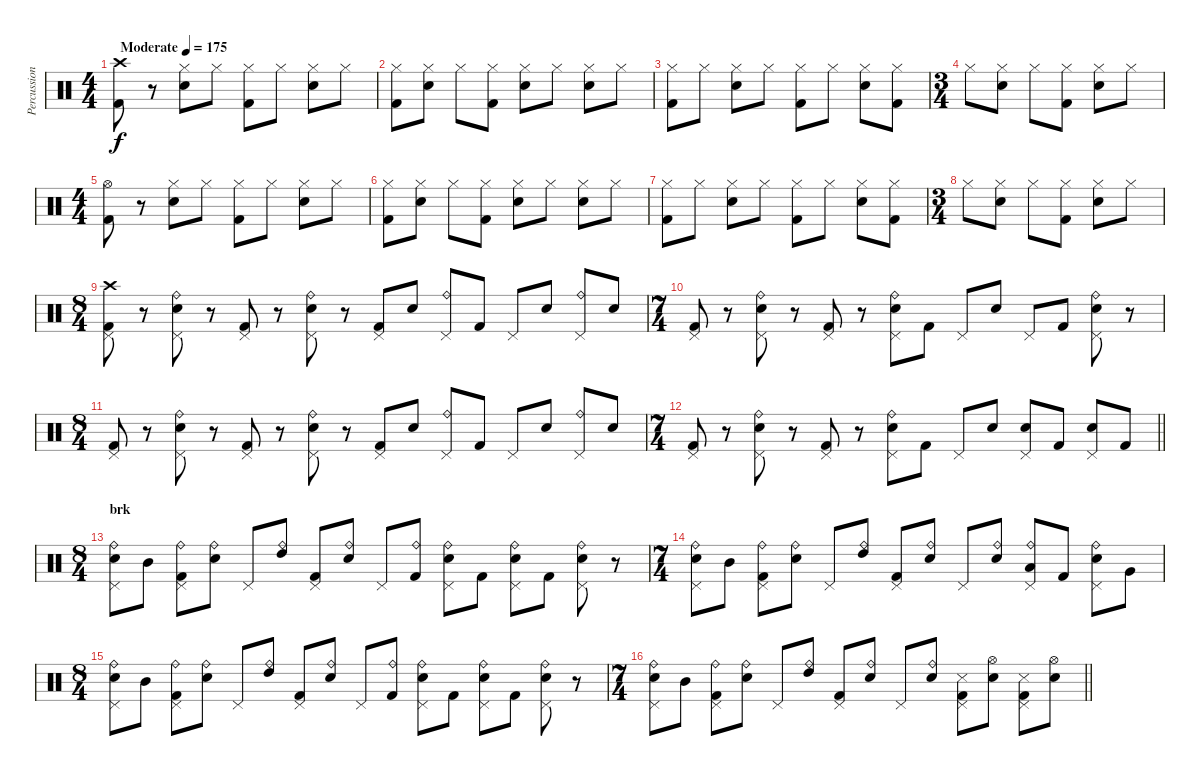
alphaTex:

\track ("Percussion" "Percussion") {instrument percussion}
\staff {score}
\articulation defaults
\ts (4 4)
\tempo (175 "Moderate")
\clef neutral
\ks c
("Crash high (hit)" "Kick (hit) 2").8{dy f} r.8 ("Hi-Hat (closed)" "Electric Snare (hit)").8 "Hi-Hat (closed)".8 ("Hi-Hat (closed)" "Kick (hit) 2").8 "Hi-Hat (closed)".8 ("Hi-Hat (closed)" "Electric Snare (hit)").8 "Hi-Hat (closed)".8 |
("Hi-Hat (closed)" "Kick (hit) 2").8 ("Hi-Hat (closed)" "Electric Snare (hit)").8 "Hi-Hat (closed)".8 ("Hi-Hat (closed)" "Kick (hit) 2").8 ("Hi-Hat (closed)" "Electric Snare (hit)").8 "Hi-Hat (closed)".8 ("Hi-Hat (closed)" "Electric Snare (hit)").8 "Hi-Hat (closed)".8 |
("Hi-Hat (closed)" "Kick (hit) 2").8 "Hi-Hat (closed)".8 ("Hi-Hat (closed)" "Electric Snare (hit)").8 "Hi-Hat (closed)".8 ("Hi-Hat (closed)" "Kick (hit) 2").8 "Hi-Hat (closed)".8 ("Hi-Hat (closed)" "Electric Snare (hit)").8 ("Hi-Hat (closed)" "Kick (hit) 2").8 |
\ts (3 4)
"Hi-Hat (closed)".8 ("Hi-Hat (closed)" "Electric Snare (hit)").8 "Hi-Hat (closed)".8 ("Hi-Hat (closed)" "Kick (hit) 2").8 ("Hi-Hat (closed)" "Electric Snare (hit)").8 "Hi-Hat (closed)".8 |
\ts (4 4)
("Hi-Hat (open)" "Kick (hit) 2").8 r.8 ("Hi-Hat (closed)" "Electric Snare (hit)").8 "Hi-Hat (closed)".8 ("Hi-Hat (closed)" "Kick (hit) 2").8 "Hi-Hat (closed)".8 ("Hi-Hat (closed)" "Electric Snare (hit)").8 "Hi-Hat (closed)".8 |
("Hi-Hat (closed)" "Kick (hit) 2").8 ("Hi-Hat (closed)" "Electric Snare (hit)").8 "Hi-Hat (closed)".8 ("Hi-Hat (closed)" "Kick (hit) 2").8 ("Hi-Hat (closed)" "Electric Snare (hit)").8 "Hi-Hat (closed)".8 ("Hi-Hat (closed)" "Electric Snare (hit)").8 "Hi-Hat (closed)".8 |
("Hi-Hat (closed)" "Kick (hit) 2").8 "Hi-Hat (closed)".8 ("Hi-Hat (closed)" "Electric Snare (hit)").8 "Hi-Hat (closed)".8 ("Hi-Hat (closed)" "Kick (hit) 2").8 "Hi-Hat (closed)".8 ("Hi-Hat (closed)" "Electric Snare (hit)").8 ("Hi-Hat (closed)" "Kick (hit) 2").8 |
\ts (3 4)
"Hi-Hat (closed)".8 ("Hi-Hat (closed)" "Electric Snare (hit)").8 "Hi-Hat (closed)".8 ("Hi-Hat (closed)" "Kick (hit) 2").8 ("Hi-Hat (closed)" "Electric Snare (hit)").8 "Hi-Hat (closed)".8 |
\ts (8 4)
("Crash high (hit)" "Pedal Hi-Hat (hit)" "Kick (hit) 2").8 r.8 ("Ride (bell)" "Electric Snare (hit)" "Pedal Hi-Hat (hit)").8 r.8 ("Pedal Hi-Hat (hit)" "Kick (hit) 2").8 r.8 ("Ride (bell)" "Electric Snare (hit)" "Pedal Hi-Hat (hit)").8 r.8 ("Pedal Hi-Hat (hit)" "Kick (hit) 2").8 "Electric Snare (hit)".8 ("Ride (bell)" "Pedal Hi-Hat (hit)").8 "Kick (hit) 2".8 "Pedal Hi-Hat (hit)".8 "Electric Snare (hit)".8 ("Ride (bell)" "Pedal Hi-Hat (hit)").8 "Electric Snare (hit)".8 |
\ts (7 4)
("Pedal Hi-Hat (hit)" "Kick (hit) 2").8 r.8 ("Ride (bell)" "Electric Snare (hit)" "Pedal Hi-Hat (hit)").8 r.8 ("Pedal Hi-Hat (hit)" "Kick (hit) 2").8 r.8 ("Ride (bell)" "Electric Snare (hit)" "Pedal Hi-Hat (hit)").8 "Kick (hit) 2".8 "Pedal Hi-Hat (hit)".8 "Electric Snare (hit)".8 "Pedal Hi-Hat (hit)".8 "Kick (hit) 2".8 ("Ride (bell)" "Electric Snare (hit)" "Pedal Hi-Hat (hit)").8 r.8 |
\ts (8 4)
("Pedal Hi-Hat (hit)" "Kick (hit) 2").8 r.8 ("Ride (bell)" "Electric Snare (hit)" "Pedal Hi-Hat (hit)").8 r.8 ("Pedal Hi-Hat (hit)" "Kick (hit) 2").8 r.8 ("Ride (bell)" "Electric Snare (hit)" "Pedal Hi-Hat (hit)").8 r.8 ("Pedal Hi-Hat (hit)" "Kick (hit) 2").8 "Electric Snare (hit)".8 ("Ride (bell)" "Pedal Hi-Hat (hit)").8 "Kick (hit) 2".8 "Pedal Hi-Hat (hit)".8 "Electric Snare (hit)".8 ("Ride (bell)" "Pedal Hi-Hat (hit)").8 "Electric Snare (hit)".8 |
\ts (7 4)
\barLineRight lightlight
("Pedal Hi-Hat (hit)" "Kick (hit) 2").8 r.8 ("Ride (bell)" "Electric Snare (hit)" "Pedal Hi-Hat (hit)").8 r.8 ("Pedal Hi-Hat (hit)" "Kick (hit) 2").8 r.8 ("Ride (bell)" "Electric Snare (hit)" "Pedal Hi-Hat (hit)").8 "Kick (hit) 2".8 "Pedal Hi-Hat (hit)".8 "Electric Snare (hit)".8 ("Electric Snare (hit)" "Pedal Hi-Hat (hit)").8 "Kick (hit) 2".8 ("Electric Snare (hit)" "Pedal Hi-Hat (hit)").8 "Kick (hit) 2".8 |
\ts (8 4)
\section ("" "brk")
("Ride (bell)" "Electric Snare (hit)" "Pedal Hi-Hat (hit)").8 "Mid Tom (hit)".8 ("Ride (bell)" "Pedal Hi-Hat (hit)" "Kick (hit) 2").8 ("Ride (bell)" "Electric Snare (hit)").8 "Pedal Hi-Hat (hit)".8 ("Ride (bell)" "High Tom (hit)").8 ("Pedal Hi-Hat (hit)" "Kick (hit) 2").8 ("Ride (bell)" "Electric Snare (hit)").8 "Pedal Hi-Hat (hit)".8 ("Ride (bell)" "Kick (hit) 2").8 ("Ride (bell)" "Electric Snare (hit)" "Pedal Hi-Hat (hit)").8 "Kick (hit) 2".8 ("Ride (bell)" "Electric Snare (hit)" "Pedal Hi-Hat (hit)").8 "Kick (hit) 2".8 ("Ride (bell)" "Electric Snare (hit)" "Pedal Hi-Hat (hit)").8 r.8 |
\ts (7 4)
("Ride (bell)" "Electric Snare (hit)" "Pedal Hi-Hat (hit)").8 "Mid Tom (hit)".8 ("Ride (bell)" "Pedal Hi-Hat (hit)" "Kick (hit) 2").8 ("Ride (bell)" "Electric Snare (hit)").8 "Pedal Hi-Hat (hit)".8 ("Ride (bell)" "High Tom (hit)").8 ("Pedal Hi-Hat (hit)" "Kick (hit) 2").8 ("Ride (bell)" "Electric Snare (hit)").8 "Pedal Hi-Hat (hit)".8 ("Ride (bell)" "Electric Snare (hit)").8 ("Ride (bell)" "Low Tom (hit)" "Pedal Hi-Hat (hit)").8 "Kick (hit) 2".8 ("Ride (bell)" "Electric Snare (hit)" "Pedal Hi-Hat (hit)").8 "Very Low Tom (hit)".8 |
\ts (8 4)
("Ride (bell)" "Electric Snare (hit)" "Pedal Hi-Hat (hit)").8 "Mid Tom (hit)".8 ("Ride (bell)" "Pedal Hi-Hat (hit)" "Kick (hit) 2").8 ("Ride (bell)" "Electric Snare (hit)").8 "Pedal Hi-Hat (hit)".8 ("Ride (bell)" "High Tom (hit)").8 ("Pedal Hi-Hat (hit)" "Kick (hit) 2").8 ("Ride (bell)" "Electric Snare (hit)").8 "Pedal Hi-Hat (hit)".8 ("Ride (bell)" "Kick (hit) 2").8 ("Ride (bell)" "Electric Snare (hit)" "Pedal Hi-Hat (hit)").8 "Kick (hit) 2".8 ("Ride (bell)" "Electric Snare (hit)" "Pedal Hi-Hat (hit)").8 "Kick (hit) 2".8 ("Ride (bell)" "Electric Snare (hit)" "Pedal Hi-Hat (hit)").8 r.8 |
\ts (7 4)
\barLineRight lightlight
("Ride (bell)" "Electric Snare (hit)" "Pedal Hi-Hat (hit)").8 "Mid Tom (hit)".8 ("Ride (bell)" "Pedal Hi-Hat (hit)" "Kick (hit) 2").8 ("Ride (bell)" "Electric Snare (hit)").8 "Pedal Hi-Hat (hit)".8 ("Ride (bell)" "High Tom (hit)").8 ("Pedal Hi-Hat (hit)" "Kick (hit) 2").8 ("Ride (bell)" "Electric Snare (hit)").8 "Pedal Hi-Hat (hit)".8 ("Ride (bell)" "Electric Snare (hit)").8 ("Snare (side stick) 3" "Pedal Hi-Hat (hit)" "Kick (hit) 2").8 ("Hi-Hat (open)" "Electric Snare (hit)").8 ("Snare (side stick) 3" "Pedal Hi-Hat (hit)" "Kick (hit) 2").8 ("Hi-Hat (open)" "Electric Snare (hit)").8
